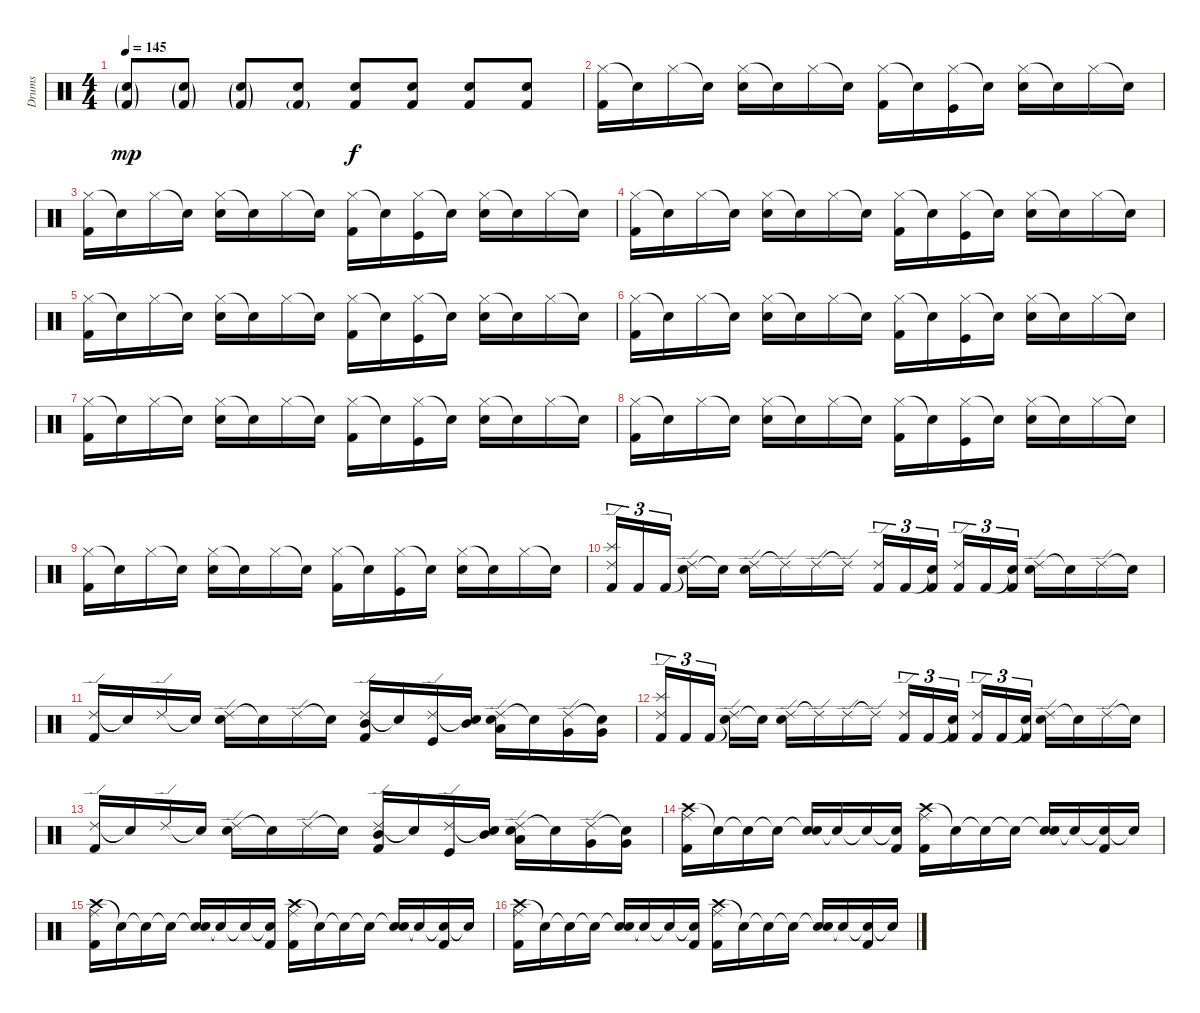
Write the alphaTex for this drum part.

\track ("Drums" "Drums") {instrument percussion}
\staff {score}
\articulation defaults
\ts (4 4)
\tempo 145
\clef neutral
\ks c
("Electric Snare (hit)"{g} "Kick (hit) 2"{g}).8{dy mp} ("Electric Snare (hit)"{g} "Kick (hit) 2"{g}).8 ("Electric Snare (hit)"{g} "Kick (hit) 2"{g}).8 ("Electric Snare (hit)" "Kick (hit) 2"{g}).8 ("Electric Snare (hit)" "Kick (hit) 2").8{dy f} ("Electric Snare (hit)" "Kick (hit) 2").8 ("Electric Snare (hit)" "Kick (hit) 2").8 ("Electric Snare (hit)" "Kick (hit) 2").8 |
("Hi-Hat (closed)" "Kick (hit) 2").16 "Snare (hit)"{t}.16 "Hi-Hat (closed)".16 "Snare (hit)"{t}.16 ("Hi-Hat (closed)" "Electric Snare (hit)").16 "Snare (hit)"{t}.16 "Hi-Hat (closed)".16 "Snare (hit)"{t}.16 ("Hi-Hat (closed)" "Kick (hit) 2").16 "Snare (hit)"{t}.16 ("Hi-Hat (closed)" "Kick (hit)").16 "Snare (hit)"{t}.16 ("Hi-Hat (closed)" "Electric Snare (hit)").16 "Snare (hit)"{t}.16 "Hi-Hat (closed)".16 "Snare (hit)"{t}.16 |
("Hi-Hat (closed)" "Kick (hit) 2").16 "Snare (hit)"{t}.16 "Hi-Hat (closed)".16 "Snare (hit)"{t}.16 ("Hi-Hat (closed)" "Electric Snare (hit)").16 "Snare (hit)"{t}.16 "Hi-Hat (closed)".16 "Snare (hit)"{t}.16 ("Hi-Hat (closed)" "Kick (hit) 2").16 "Snare (hit)"{t}.16 ("Hi-Hat (closed)" "Kick (hit)").16 "Snare (hit)"{t}.16 ("Hi-Hat (closed)" "Electric Snare (hit)").16 "Snare (hit)"{t}.16 "Hi-Hat (closed)".16 "Snare (hit)"{t}.16 |
("Hi-Hat (closed)" "Kick (hit) 2").16 "Snare (hit)"{t}.16 "Hi-Hat (closed)".16 "Snare (hit)"{t}.16 ("Hi-Hat (closed)" "Electric Snare (hit)").16 "Snare (hit)"{t}.16 "Hi-Hat (closed)".16 "Snare (hit)"{t}.16 ("Hi-Hat (closed)" "Kick (hit) 2").16 "Snare (hit)"{t}.16 ("Hi-Hat (closed)" "Kick (hit)").16 "Snare (hit)"{t}.16 ("Hi-Hat (closed)" "Electric Snare (hit)").16 "Snare (hit)"{t}.16 "Hi-Hat (closed)".16 "Snare (hit)"{t}.16 |
("Hi-Hat (closed)" "Kick (hit) 2").16 "Snare (hit)"{t}.16 "Hi-Hat (closed)".16 "Snare (hit)"{t}.16 ("Hi-Hat (closed)" "Electric Snare (hit)").16 "Snare (hit)"{t}.16 "Hi-Hat (closed)".16 "Snare (hit)"{t}.16 ("Hi-Hat (closed)" "Kick (hit) 2").16 "Snare (hit)"{t}.16 ("Hi-Hat (closed)" "Kick (hit)").16 "Snare (hit)"{t}.16 ("Hi-Hat (closed)" "Electric Snare (hit)").16 "Snare (hit)"{t}.16 "Hi-Hat (closed)".16 "Snare (hit)"{t}.16 |
("Hi-Hat (closed)" "Kick (hit) 2").16 "Snare (hit)"{t}.16 "Hi-Hat (closed)".16 "Snare (hit)"{t}.16 ("Hi-Hat (closed)" "Electric Snare (hit)").16 "Snare (hit)"{t}.16 "Hi-Hat (closed)".16 "Snare (hit)"{t}.16 ("Hi-Hat (closed)" "Kick (hit) 2").16 "Snare (hit)"{t}.16 ("Hi-Hat (closed)" "Kick (hit)").16 "Snare (hit)"{t}.16 ("Hi-Hat (closed)" "Electric Snare (hit)").16 "Snare (hit)"{t}.16 "Hi-Hat (closed)".16 "Snare (hit)"{t}.16 |
("Hi-Hat (closed)" "Kick (hit) 2").16 "Snare (hit)"{t}.16 "Hi-Hat (closed)".16 "Snare (hit)"{t}.16 ("Hi-Hat (closed)" "Electric Snare (hit)").16 "Snare (hit)"{t}.16 "Hi-Hat (closed)".16 "Snare (hit)"{t}.16 ("Hi-Hat (closed)" "Kick (hit) 2").16 "Snare (hit)"{t}.16 ("Hi-Hat (closed)" "Kick (hit)").16 "Snare (hit)"{t}.16 ("Hi-Hat (closed)" "Electric Snare (hit)").16 "Snare (hit)"{t}.16 "Hi-Hat (closed)".16 "Snare (hit)"{t}.16 |
("Hi-Hat (closed)" "Kick (hit) 2").16 "Snare (hit)"{t}.16 "Hi-Hat (closed)".16 "Snare (hit)"{t}.16 ("Hi-Hat (closed)" "Electric Snare (hit)").16 "Snare (hit)"{t}.16 "Hi-Hat (closed)".16 "Snare (hit)"{t}.16 ("Hi-Hat (closed)" "Kick (hit) 2").16 "Snare (hit)"{t}.16 ("Hi-Hat (closed)" "Kick (hit)").16 "Snare (hit)"{t}.16 ("Hi-Hat (closed)" "Electric Snare (hit)").16 "Snare (hit)"{t}.16 "Hi-Hat (closed)".16 "Snare (hit)"{t}.16 |
("Hi-Hat (closed)" "Kick (hit) 2").16 "Snare (hit)"{t}.16 "Hi-Hat (closed)".16 "Snare (hit)"{t}.16 ("Hi-Hat (closed)" "Electric Snare (hit)").16 "Snare (hit)"{t}.16 "Hi-Hat (closed)".16 "Snare (hit)"{t}.16 ("Hi-Hat (closed)" "Kick (hit) 2").16 "Snare (hit)"{t}.16 ("Hi-Hat (closed)" "Kick (hit)").16 "Snare (hit)"{t}.16 ("Hi-Hat (closed)" "Electric Snare (hit)").16 "Snare (hit)"{t}.16 "Hi-Hat (closed)".16 "Snare (hit)"{t}.16 |
("Splash (hit)" "Ride (edge) 2" "Kick (hit) 2").16{tu (3 2)} "Kick (hit) 2".16{tu (3 2)} "Kick (hit) 2".16{tu (3 2)} ("Snare (hit)"{t} "Ride (edge) 2").16 "Snare (hit)"{t}.16 ("Ride (edge) 2" "Electric Snare (hit)").16 "Ride (edge) 2"{t}.16 "Ride (edge) 2".16 "Ride (edge) 2"{t}.16 ("Ride (edge) 2" "Kick (hit) 2").16{tu (3 2)} "Kick (hit) 2".16{tu (3 2)} ("Snare (hit)"{t} "Kick (hit) 2").16{tu (3 2)} ("Ride (edge) 2" "Kick (hit) 2").16{tu (3 2)} "Kick (hit) 2".16{tu (3 2)} ("Snare (hit)"{t} "Kick (hit) 2").16{tu (3 2)} ("Ride (edge) 2" "Electric Snare (hit)").16 "Snare (hit)"{t}.16 "Ride (edge) 2".16 "Snare (hit)"{t}.16 |
("Ride (edge) 2" "Kick (hit) 2").16 "Snare (hit)"{t}.16 "Ride (edge) 2".16 "Snare (hit)"{t}.16 ("Ride (edge) 2" "Electric Snare (hit)").16 "Snare (hit)"{t}.16 "Ride (edge) 2".16 "Snare (hit)"{t}.16 ("Ride (edge) 2" "Mid Tom (hit)" "Kick (hit) 2").16 "Snare (hit)"{t}.16 ("Ride (edge) 2" "Kick (hit)").16 ("Snare (hit)"{t} "Mid Tom (hit)").16 ("Ride (edge) 2" "Low Tom (hit)" "Electric Snare (hit)").16 "Snare (hit)"{t}.16 ("Ride (edge) 2" "Very Low Tom (hit)").16 ("Snare (hit)"{t} "Very Low Tom (hit)").16 |
("Splash (hit)" "Ride (edge) 2" "Kick (hit) 2").16{tu (3 2)} "Kick (hit) 2".16{tu (3 2)} "Kick (hit) 2".16{tu (3 2)} ("Snare (hit)"{t} "Ride (edge) 2").16 "Snare (hit)"{t}.16 ("Ride (edge) 2" "Electric Snare (hit)").16 "Ride (edge) 2"{t}.16 "Ride (edge) 2".16 "Ride (edge) 2"{t}.16 ("Ride (edge) 2" "Kick (hit) 2").16{tu (3 2)} "Kick (hit) 2".16{tu (3 2)} ("Snare (hit)"{t} "Kick (hit) 2").16{tu (3 2)} ("Ride (edge) 2" "Kick (hit) 2").16{tu (3 2)} "Kick (hit) 2".16{tu (3 2)} ("Snare (hit)"{t} "Kick (hit) 2").16{tu (3 2)} ("Ride (edge) 2" "Electric Snare (hit)").16 "Snare (hit)"{t}.16 "Ride (edge) 2".16 "Snare (hit)"{t}.16 |
("Ride (edge) 2" "Kick (hit) 2").16 "Snare (hit)"{t}.16 "Ride (edge) 2".16 "Snare (hit)"{t}.16 ("Ride (edge) 2" "Electric Snare (hit)").16 "Snare (hit)"{t}.16 "Ride (edge) 2".16 "Snare (hit)"{t}.16 ("Ride (edge) 2" "Mid Tom (hit)" "Kick (hit) 2").16 "Snare (hit)"{t}.16 ("Ride (edge) 2" "Kick (hit)").16 ("Snare (hit)"{t} "Mid Tom (hit)").16 ("Ride (edge) 2" "Low Tom (hit)" "Electric Snare (hit)").16 "Snare (hit)"{t}.16 ("Ride (edge) 2" "Very Low Tom (hit)").16 ("Snare (hit)"{t} "Very Low Tom (hit)").16 |
("Crash high (hit)" "Ride (middle)" "Kick (hit) 2").16 "Snare (hit)"{t}.16 "Snare (hit)"{t}.16 "Snare (hit)"{t}.16 ("Snare (hit)"{t} "Electric Snare (hit)").16 "Snare (hit)"{t}.16 "Snare (hit)"{t}.16 ("Snare (hit)"{t} "Kick (hit) 2").16 ("Crash high (hit)" "Ride (middle)" "Kick (hit) 2").16 "Snare (hit)"{t}.16 "Snare (hit)"{t}.16 "Snare (hit)"{t}.16 ("Snare (hit)"{t} "Electric Snare (hit)").16 "Snare (hit)"{t}.16 ("Snare (hit)"{t} "Kick (hit) 2").16 "Snare (hit)"{t}.16 |
("Crash high (hit)" "Ride (middle)" "Kick (hit) 2").16 "Snare (hit)"{t}.16 "Snare (hit)"{t}.16 "Snare (hit)"{t}.16 ("Snare (hit)"{t} "Electric Snare (hit)").16 "Snare (hit)"{t}.16 "Snare (hit)"{t}.16 ("Snare (hit)"{t} "Kick (hit) 2").16 ("Crash high (hit)" "Ride (middle)" "Kick (hit) 2").16 "Snare (hit)"{t}.16 "Snare (hit)"{t}.16 "Snare (hit)"{t}.16 ("Snare (hit)"{t} "Electric Snare (hit)").16 "Snare (hit)"{t}.16 ("Snare (hit)"{t} "Kick (hit) 2").16 "Snare (hit)"{t}.16 |
("Crash high (hit)" "Ride (middle)" "Kick (hit) 2").16 "Snare (hit)"{t}.16 "Snare (hit)"{t}.16 "Snare (hit)"{t}.16 ("Snare (hit)"{t} "Electric Snare (hit)").16 "Snare (hit)"{t}.16 "Snare (hit)"{t}.16 ("Snare (hit)"{t} "Kick (hit) 2").16 ("Crash high (hit)" "Ride (middle)" "Kick (hit) 2").16 "Snare (hit)"{t}.16 "Snare (hit)"{t}.16 "Snare (hit)"{t}.16 ("Snare (hit)"{t} "Electric Snare (hit)").16 "Snare (hit)"{t}.16 ("Snare (hit)"{t} "Kick (hit) 2").16 "Snare (hit)"{t}.16
